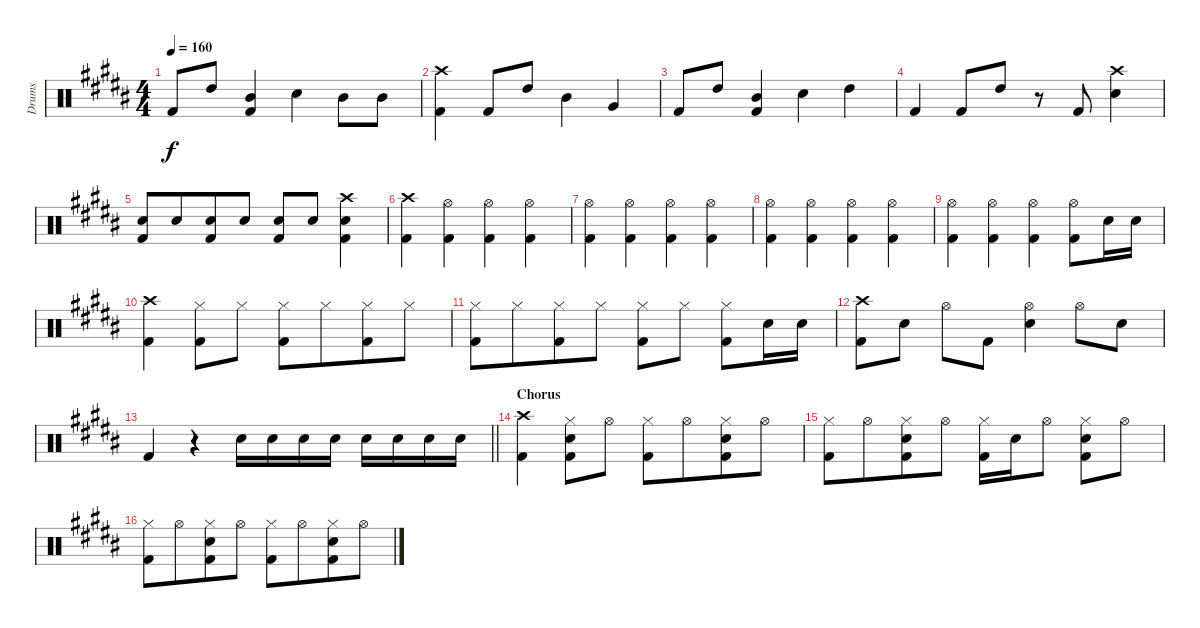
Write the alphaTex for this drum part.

\track ("Drums" "Drums") {instrument percussion}
\staff {score}
\articulation defaults
\ts (4 4)
\tempo 160
\clef neutral
\ks b "Kick (hit) 2".8{dy f} "High Tom (hit)".8
("Mid Tom (hit)" "Kick (hit) 2").4 "Snare (hit) 2".4 "Mid Tom (hit)".8 "Mid Tom (hit)".8 |
("Kick (hit) 2" "Crash high (hit)").4 "Kick (hit) 2".8 "High Tom (hit)".8 "Mid Tom (hit)".4 "Very Low Tom (hit)".4 |
"Kick (hit) 2".8 "High Tom (hit)".8 ("Mid Tom (hit)" "Kick (hit) 2").4 "Snare (hit) 2".4 "High Tom (hit)".4 |
"Kick (hit) 2".4 "Kick (hit) 2".8 "High Tom (hit)".8 r.8 "Kick (hit) 2".8 ("Snare (hit) 2" "Crash high (hit)").4 |
("Snare (hit) 2" "Kick (hit) 2").8 "Snare (hit) 2".8{beam merge} ("Snare (hit) 2" "Kick (hit) 2").8 "Snare (hit) 2".8 ("Snare (hit) 2" "Kick (hit) 2").8 "Snare (hit) 2".8 ("Snare (hit) 2" "Kick (hit) 2" "Crash high (hit)").4 |
("Kick (hit) 2" "Crash high (hit)").4 ("Hi-Hat (open)" "Kick (hit) 2").4 ("Hi-Hat (open)" "Kick (hit) 2").4 ("Hi-Hat (open)" "Kick (hit) 2").4 |
("Hi-Hat (open)" "Kick (hit) 2").4 ("Hi-Hat (open)" "Kick (hit) 2").4 ("Hi-Hat (open)" "Kick (hit) 2").4 ("Hi-Hat (open)" "Kick (hit) 2").4 |
("Hi-Hat (open)" "Kick (hit) 2").4 ("Hi-Hat (open)" "Kick (hit) 2").4 ("Hi-Hat (open)" "Kick (hit) 2").4 ("Hi-Hat (open)" "Kick (hit) 2").4 |
("Hi-Hat (open)" "Kick (hit) 2").4 ("Hi-Hat (open)" "Kick (hit) 2").4 ("Hi-Hat (open)" "Kick (hit) 2").4 ("Hi-Hat (open)" "Kick (hit) 2").8 "Snare (hit) 2".16 "Snare (hit) 2".16 |
("Kick (hit) 2" "Crash high (hit)").4 ("Hi-Hat (closed)" "Kick (hit) 2").8 "Hi-Hat (closed)".8 ("Hi-Hat (closed)" "Kick (hit) 2").8 "Hi-Hat (closed)".8{beam merge} ("Hi-Hat (closed)" "Kick (hit) 2").8 "Hi-Hat (closed)".8 |
("Hi-Hat (closed)" "Kick (hit) 2").8 "Hi-Hat (closed)".8{beam merge} ("Hi-Hat (closed)" "Kick (hit) 2").8 "Hi-Hat (closed)".8 ("Hi-Hat (closed)" "Kick (hit) 2").8 "Hi-Hat (closed)".8 ("Hi-Hat (closed)" "Kick (hit) 2").8 "Snare (hit) 2".16 "Snare (hit) 2".16 |
("Kick (hit) 2" "Crash high (hit)").8 "Snare (hit) 2".8 "Hi-Hat (open)".8 "Kick (hit) 2".8 ("Hi-Hat (open)" "Snare (hit) 2").4 "Hi-Hat (open)".8 "Snare (hit) 2".8 |
\barLineRight lightlight "Kick (hit) 2".4
r.4 "Snare (hit) 2".16 "Snare (hit) 2".16 "Snare (hit) 2".16 "Snare (hit) 2".16 "Snare (hit) 2".16 "Snare (hit) 2".16 "Snare (hit) 2".16 "Snare (hit) 2".16 |
\section ("" "Chorus")
("Kick (hit) 2" "Crash high (hit)").4 ("Hi-Hat (closed)" "Snare (hit) 2" "Kick (hit) 2").8 "Hi-Hat (open)".8 ("Hi-Hat (closed)" "Kick (hit) 2").8 "Hi-Hat (open)".8{beam merge} ("Hi-Hat (closed)" "Snare (hit) 2" "Kick (hit) 2").8 "Hi-Hat (open)".8 |
("Hi-Hat (closed)" "Kick (hit) 2").8 "Hi-Hat (open)".8{beam merge} ("Hi-Hat (closed)" "Snare (hit) 2" "Kick (hit) 2").8 "Hi-Hat (open)".8 ("Hi-Hat (closed)" "Kick (hit) 2").16 "Snare (hit) 2".16 "Hi-Hat (open)".8 ("Hi-Hat (closed)" "Snare (hit) 2" "Kick (hit) 2").8 "Hi-Hat (open)".8 |
("Hi-Hat (closed)" "Kick (hit) 2").8 "Hi-Hat (open)".8{beam merge} ("Hi-Hat (closed)" "Snare (hit) 2" "Kick (hit) 2").8 "Hi-Hat (open)".8 ("Hi-Hat (closed)" "Kick (hit) 2").8 "Hi-Hat (open)".8{beam merge} ("Hi-Hat (closed)" "Snare (hit) 2" "Kick (hit) 2").8 "Hi-Hat (open)".8
